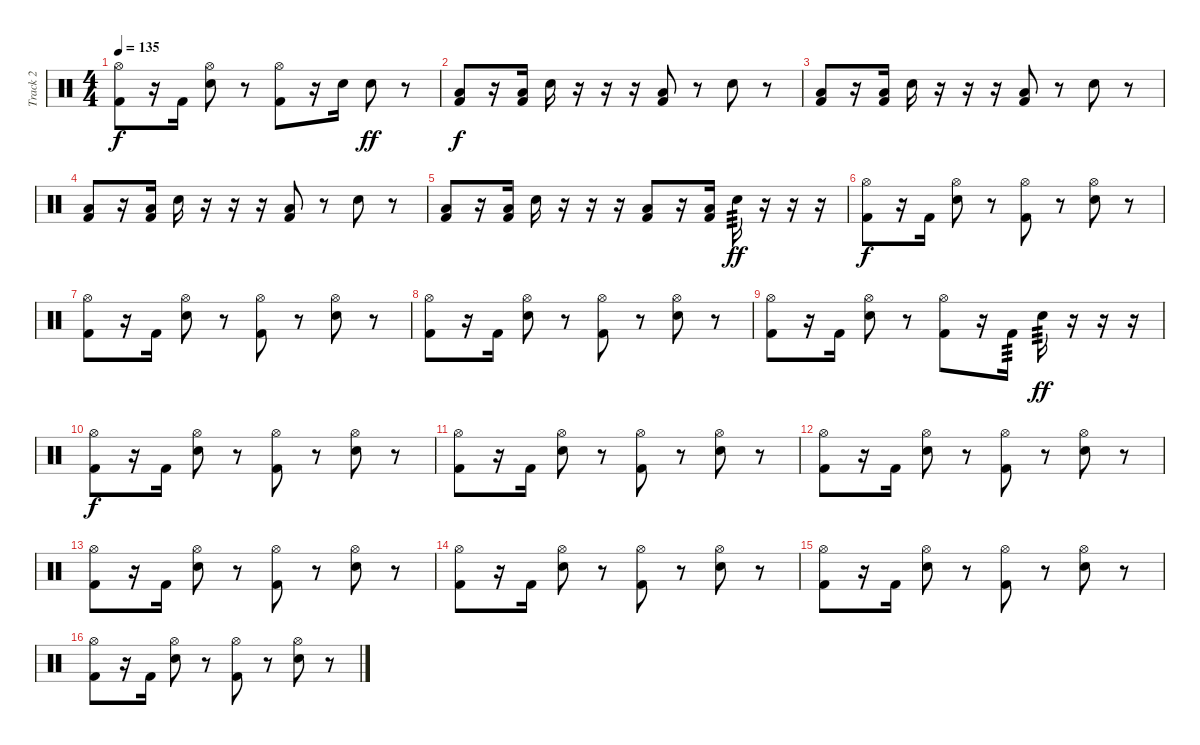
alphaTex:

\track ("Track 2" "Track 2") {instrument percussion}
\staff {score}
\articulation defaults
\ts (4 4)
\tempo 135
\clef neutral
\ks c
("Hi-Hat (open)" "Kick (hit) 2").8{dy f} r.16 "Kick (hit) 2".16 ("Hi-Hat (open)" "Electric Snare (hit)").8 r.8 ("Hi-Hat (open)" "Kick (hit) 2").8 r.16 "Electric Snare (hit)".16 "Electric Snare (hit)".8{dy ff} r.8 |
("Low Floor Tom (hit)" "Kick (hit) 2").8{dy f} r.16 ("Low Floor Tom (hit)" "Kick (hit) 2").16 "Electric Snare (hit)".16 r.16 r.16 r.16 ("Low Floor Tom (hit)" "Kick (hit) 2").8 r.8 "Electric Snare (hit)".8 r.8 |
("Low Floor Tom (hit)" "Kick (hit) 2").8 r.16 ("Low Floor Tom (hit)" "Kick (hit) 2").16 "Electric Snare (hit)".16 r.16 r.16 r.16 ("Low Floor Tom (hit)" "Kick (hit) 2").8 r.8 "Electric Snare (hit)".8 r.8 |
("Low Floor Tom (hit)" "Kick (hit) 2").8 r.16 ("Low Floor Tom (hit)" "Kick (hit) 2").16 "Electric Snare (hit)".16 r.16 r.16 r.16 ("Low Floor Tom (hit)" "Kick (hit) 2").8 r.8 "Electric Snare (hit)".8 r.8 |
("Low Floor Tom (hit)" "Kick (hit) 2").8 r.16 ("Low Floor Tom (hit)" "Kick (hit) 2").16 "Electric Snare (hit)".16 r.16 r.16 r.16 ("Low Floor Tom (hit)" "Kick (hit) 2").8 r.16 ("Low Floor Tom (hit)" "Kick (hit) 2").16 "Electric Snare (hit)".16{tp 3 dy ff} r.16 r.16 r.16 |
("Hi-Hat (open)" "Kick (hit) 2").8{dy f} r.16 "Kick (hit) 2".16 ("Hi-Hat (open)" "Electric Snare (hit)").8 r.8 ("Hi-Hat (open)" "Kick (hit) 2").8 r.8 ("Hi-Hat (open)" "Electric Snare (hit)").8 r.8 |
("Hi-Hat (open)" "Kick (hit) 2").8 r.16 "Kick (hit) 2".16 ("Hi-Hat (open)" "Electric Snare (hit)").8 r.8 ("Hi-Hat (open)" "Kick (hit) 2").8 r.8 ("Hi-Hat (open)" "Electric Snare (hit)").8 r.8 |
("Hi-Hat (open)" "Kick (hit) 2").8 r.16 "Kick (hit) 2".16 ("Hi-Hat (open)" "Electric Snare (hit)").8 r.8 ("Hi-Hat (open)" "Kick (hit) 2").8 r.8 ("Hi-Hat (open)" "Electric Snare (hit)").8 r.8 |
("Hi-Hat (open)" "Kick (hit) 2").8 r.16 "Kick (hit) 2".16 ("Hi-Hat (open)" "Electric Snare (hit)").8 r.8 ("Hi-Hat (open)" "Kick (hit) 2").8 r.16 "Kick (hit) 2".16{tp 3} "Electric Snare (hit)".16{tp 3 dy ff} r.16 r.16 r.16 |
("Hi-Hat (open)" "Kick (hit) 2").8{dy f} r.16 "Kick (hit) 2".16 ("Hi-Hat (open)" "Electric Snare (hit)").8 r.8 ("Hi-Hat (open)" "Kick (hit) 2").8 r.8 ("Hi-Hat (open)" "Electric Snare (hit)").8 r.8 |
("Hi-Hat (open)" "Kick (hit) 2").8 r.16 "Kick (hit) 2".16 ("Hi-Hat (open)" "Electric Snare (hit)").8 r.8 ("Hi-Hat (open)" "Kick (hit) 2").8 r.8 ("Hi-Hat (open)" "Electric Snare (hit)").8 r.8 |
("Hi-Hat (open)" "Kick (hit) 2").8 r.16 "Kick (hit) 2".16 ("Hi-Hat (open)" "Electric Snare (hit)").8 r.8 ("Hi-Hat (open)" "Kick (hit) 2").8 r.8 ("Hi-Hat (open)" "Electric Snare (hit)").8 r.8 |
("Hi-Hat (open)" "Kick (hit) 2").8 r.16 "Kick (hit) 2".16 ("Hi-Hat (open)" "Electric Snare (hit)").8 r.8 ("Hi-Hat (open)" "Kick (hit) 2").8 r.8 ("Hi-Hat (open)" "Electric Snare (hit)").8 r.8 |
("Hi-Hat (open)" "Kick (hit) 2").8 r.16 "Kick (hit) 2".16 ("Hi-Hat (open)" "Electric Snare (hit)").8 r.8 ("Hi-Hat (open)" "Kick (hit) 2").8 r.8 ("Hi-Hat (open)" "Electric Snare (hit)").8 r.8 |
("Hi-Hat (open)" "Kick (hit) 2").8 r.16 "Kick (hit) 2".16 ("Hi-Hat (open)" "Electric Snare (hit)").8 r.8 ("Hi-Hat (open)" "Kick (hit) 2").8 r.8 ("Hi-Hat (open)" "Electric Snare (hit)").8 r.8 |
("Hi-Hat (open)" "Kick (hit) 2").8 r.16 "Kick (hit) 2".16 ("Hi-Hat (open)" "Electric Snare (hit)").8 r.8 ("Hi-Hat (open)" "Kick (hit) 2").8 r.8 ("Hi-Hat (open)" "Electric Snare (hit)").8 r.8
